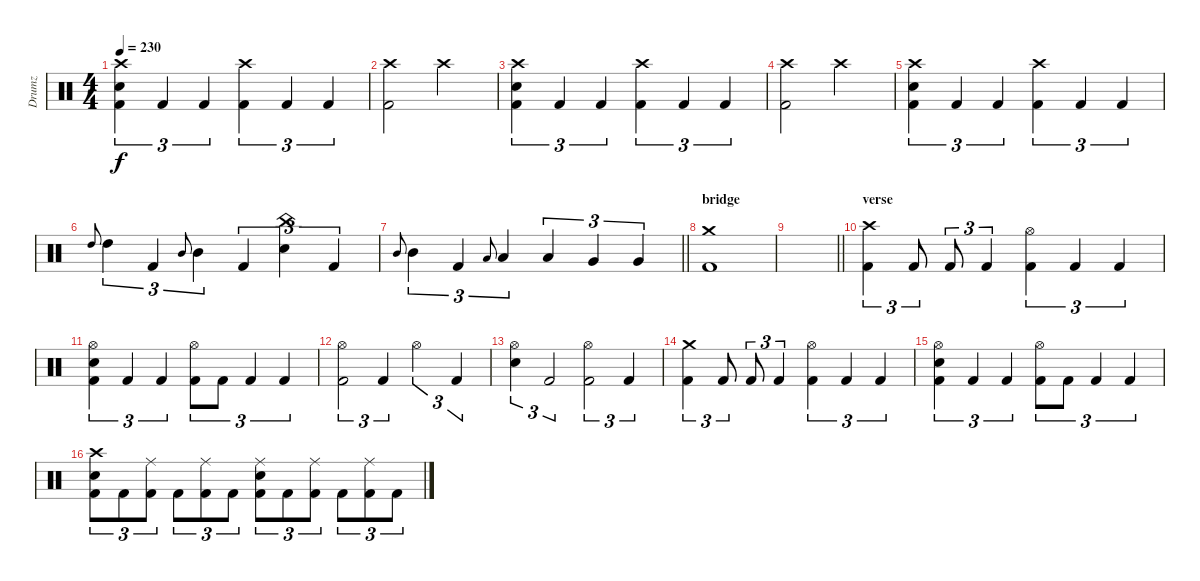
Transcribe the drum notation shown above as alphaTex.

\track ("Drumz" "Drumz") {instrument percussion}
\staff {score}
\articulation defaults
\ts (4 4)
\tempo 230
\clef neutral
\ks c
("Crash high (hit)" "Electric Snare (hit)" "Kick (hit) 2").4{tu (3 2) dy f} "Kick (hit) 2".4{tu (3 2)} "Kick (hit) 2".4{tu (3 2)} ("Crash high (hit)" "Kick (hit) 2").4{tu (3 2)} "Kick (hit) 2".4{tu (3 2)} "Kick (hit) 2".4{tu (3 2)} |
("Crash high (hit)" "Kick (hit) 2").2 "Crash high (hit)".2 |
("Crash high (hit)" "Electric Snare (hit)" "Kick (hit) 2").4{tu (3 2)} "Kick (hit) 2".4{tu (3 2)} "Kick (hit) 2".4{tu (3 2)} ("Crash high (hit)" "Kick (hit) 2").4{tu (3 2)} "Kick (hit) 2".4{tu (3 2)} "Kick (hit) 2".4{tu (3 2)} |
("Crash high (hit)" "Kick (hit) 2").2 "Crash high (hit)".2 |
("Crash high (hit)" "Electric Snare (hit)" "Kick (hit) 2").4{tu (3 2)} "Kick (hit) 2".4{tu (3 2)} "Kick (hit) 2".4{tu (3 2)} ("Crash high (hit)" "Kick (hit) 2").4{tu (3 2)} "Kick (hit) 2".4{tu (3 2)} "Kick (hit) 2".4{tu (3 2)} |
"High Tom (hit)".8{gr onbeat} "High Tom (hit)".4{tu (3 2)} "Kick (hit) 2".4{tu (3 2)} "Mid Tom (hit)".8{gr onbeat} "Mid Tom (hit)".4{tu (3 2)} "Kick (hit) 2".4{tu (3 2)} ("China (hit)" "Electric Snare (hit)").4{tu (3 2)} "Kick (hit) 2".4{tu (3 2)} |
\barLineRight lightlight "Mid Tom (hit)".8{gr onbeat} "Mid Tom (hit)".4{tu (3 2)} "Kick (hit) 2".4{tu (3 2)} "Low Tom (hit)".8{gr onbeat} "Low Tom (hit)".4{tu (3 2)} "Low Tom (hit)".4{tu (3 2)} "Very Low Tom (hit)".4{tu (3 2)} "Very Low Tom (hit)".4{tu (3 2)}
|
\section ("" "bridge")
("Crash medium (hit)" "Kick (hit) 2").1 |
\barLineRight lightlight
|
\section ("" "verse")
("Crash high (hit)" "Kick (hit) 2").4{tu (3 2)} "Kick (hit) 2".8{tu (3 2)} "Kick (hit) 2".8{tu (3 2)} "Kick (hit) 2".4{tu (3 2)} ("Hi-Hat (open)" "Kick (hit) 2").4{tu (3 2)} "Kick (hit) 2".4{tu (3 2)} "Kick (hit) 2".4{tu (3 2)} |
("Hi-Hat (open)" "Electric Snare (hit)" "Kick (hit) 2").4{tu (3 2)} "Kick (hit) 2".4{tu (3 2)} "Kick (hit) 2".4{tu (3 2)} ("Hi-Hat (open)" "Kick (hit) 2").8{tu (3 2)} "Kick (hit) 2".8{tu (3 2)} "Kick (hit) 2".4{tu (3 2)} "Kick (hit) 2".4{tu (3 2)} |
("Hi-Hat (open)" "Kick (hit) 2").2{tu (3 2)} "Kick (hit) 2".4{tu (3 2)} "Hi-Hat (open)".2{tu (3 2)} "Kick (hit) 2".4{tu (3 2)} |
("Hi-Hat (open)" "Electric Snare (hit)").4{tu (3 2)} "Kick (hit) 2".2{tu (3 2)} ("Hi-Hat (open)" "Kick (hit) 2").2{tu (3 2)} "Kick (hit) 2".4{tu (3 2)} |
("Crash medium (hit)" "Kick (hit) 2").4{tu (3 2)} "Kick (hit) 2".8{tu (3 2)} "Kick (hit) 2".8{tu (3 2)} "Kick (hit) 2".4{tu (3 2)} ("Hi-Hat (open)" "Kick (hit) 2").4{tu (3 2)} "Kick (hit) 2".4{tu (3 2)} "Kick (hit) 2".4{tu (3 2)} |
("Hi-Hat (open)" "Electric Snare (hit)" "Kick (hit) 2").4{tu (3 2)} "Kick (hit) 2".4{tu (3 2)} "Kick (hit) 2".4{tu (3 2)} ("Hi-Hat (open)" "Kick (hit) 2").8{tu (3 2)} "Kick (hit) 2".8{tu (3 2)} "Kick (hit) 2".4{tu (3 2)} "Kick (hit) 2".4{tu (3 2)} |
("Crash high (hit)" "Electric Snare (hit)" "Kick (hit) 2").8{tu (3 2)} "Kick (hit) 2".8{tu (3 2)} ("Ride (middle)" "Kick (hit) 2").8{tu (3 2)} "Kick (hit) 2".8{tu (3 2)} ("Ride (middle)" "Kick (hit) 2").8{tu (3 2)} "Kick (hit) 2".8{tu (3 2)} ("Ride (middle)" "Electric Snare (hit)" "Kick (hit) 2").8{tu (3 2)} "Kick (hit) 2".8{tu (3 2)} ("Ride (middle)" "Kick (hit) 2").8{tu (3 2)} "Kick (hit) 2".8{tu (3 2)} ("Ride (middle)" "Kick (hit) 2").8{tu (3 2)} "Kick (hit) 2".8{tu (3 2)}
